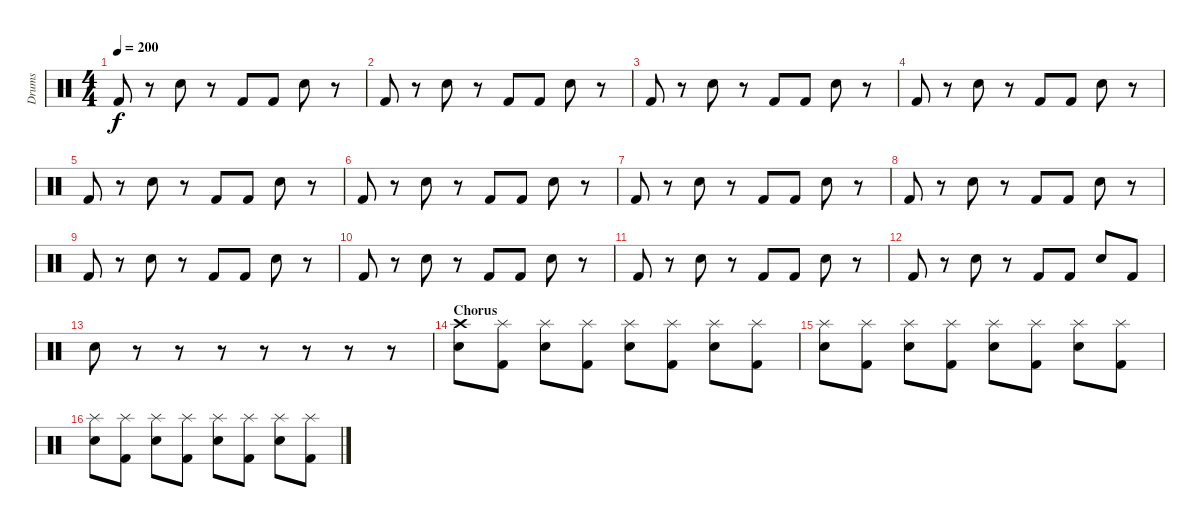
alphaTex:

\track ("Drums" "Drums") {instrument percussion}
\staff {score}
\articulation defaults
\ts (4 4)
\tempo 200
\clef neutral
\ks c "Kick (hit) 2".8{dy f}
r.8 "Electric Snare (hit)".8 r.8 "Kick (hit) 2".8 "Kick (hit) 2".8 "Electric Snare (hit)".8 r.8 |
"Kick (hit) 2".8 r.8 "Electric Snare (hit)".8 r.8 "Kick (hit) 2".8 "Kick (hit) 2".8 "Electric Snare (hit)".8 r.8 |
"Kick (hit) 2".8 r.8 "Electric Snare (hit)".8 r.8 "Kick (hit) 2".8 "Kick (hit) 2".8 "Electric Snare (hit)".8 r.8 |
"Kick (hit) 2".8 r.8 "Electric Snare (hit)".8 r.8 "Kick (hit) 2".8 "Kick (hit) 2".8 "Electric Snare (hit)".8 r.8 |
"Kick (hit) 2".8 r.8 "Electric Snare (hit)".8 r.8 "Kick (hit) 2".8 "Kick (hit) 2".8 "Electric Snare (hit)".8 r.8 |
"Kick (hit) 2".8 r.8 "Electric Snare (hit)".8 r.8 "Kick (hit) 2".8 "Kick (hit) 2".8 "Electric Snare (hit)".8 r.8 |
"Kick (hit) 2".8 r.8 "Electric Snare (hit)".8 r.8 "Kick (hit) 2".8 "Kick (hit) 2".8 "Electric Snare (hit)".8 r.8 |
"Kick (hit) 2".8 r.8 "Electric Snare (hit)".8 r.8 "Kick (hit) 2".8 "Kick (hit) 2".8 "Electric Snare (hit)".8 r.8 |
"Kick (hit) 2".8 r.8 "Electric Snare (hit)".8 r.8 "Kick (hit) 2".8 "Kick (hit) 2".8 "Electric Snare (hit)".8 r.8 |
"Kick (hit) 2".8 r.8 "Electric Snare (hit)".8 r.8 "Kick (hit) 2".8 "Kick (hit) 2".8 "Electric Snare (hit)".8 r.8 |
"Kick (hit) 2".8 r.8 "Electric Snare (hit)".8 r.8 "Kick (hit) 2".8 "Kick (hit) 2".8 "Electric Snare (hit)".8 r.8 |
"Kick (hit) 2".8 r.8 "Electric Snare (hit)".8 r.8 "Kick (hit) 2".8 "Kick (hit) 2".8 "Electric Snare (hit)".8 "Kick (hit) 2".8 |
"Electric Snare (hit)".8 r.8 r.8 r.8 r.8 r.8 r.8 r.8 |
\section ("" "Chorus")
("Crash high (hit)" "Electric Snare (hit)").8 ("Splash (hit)" "Kick (hit) 2").8 ("Splash (hit)" "Electric Snare (hit)").8 ("Splash (hit)" "Kick (hit) 2").8 ("Splash (hit)" "Electric Snare (hit)").8 ("Splash (hit)" "Kick (hit) 2").8 ("Splash (hit)" "Electric Snare (hit)").8 ("Splash (hit)" "Kick (hit) 2").8 |
("Splash (hit)" "Electric Snare (hit)").8 ("Splash (hit)" "Kick (hit) 2").8 ("Splash (hit)" "Electric Snare (hit)").8 ("Splash (hit)" "Kick (hit) 2").8 ("Splash (hit)" "Electric Snare (hit)").8 ("Splash (hit)" "Kick (hit) 2").8 ("Splash (hit)" "Electric Snare (hit)").8 ("Splash (hit)" "Kick (hit) 2").8 |
("Splash (hit)" "Electric Snare (hit)").8 ("Splash (hit)" "Kick (hit) 2").8 ("Splash (hit)" "Electric Snare (hit)").8 ("Splash (hit)" "Kick (hit) 2").8 ("Splash (hit)" "Electric Snare (hit)").8 ("Splash (hit)" "Kick (hit) 2").8 ("Splash (hit)" "Electric Snare (hit)").8 ("Splash (hit)" "Kick (hit) 2").8
